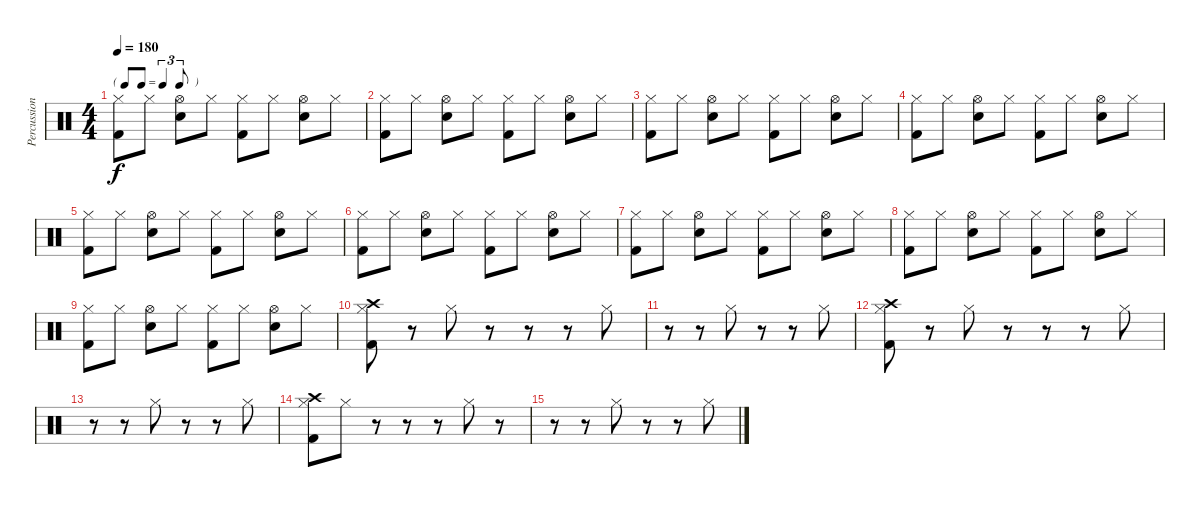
\track ("Percussions" "Percussion") {instrument percussion}
\staff {score}
\articulation defaults
\ts (4 4)
\tf triplet8th
\tempo 180
\clef neutral
\ks c
("Hi-Hat (closed)" "Kick (hit) 2").8{dy f} "Hi-Hat (closed)".8 ("Hi-Hat (open)" "Snare (hit) 2").8 "Hi-Hat (closed)".8 ("Hi-Hat (closed)" "Kick (hit) 2").8 "Hi-Hat (closed)".8 ("Hi-Hat (open)" "Snare (hit) 2").8 "Hi-Hat (closed)".8 |
("Hi-Hat (closed)" "Kick (hit) 2").8 "Hi-Hat (closed)".8 ("Hi-Hat (open)" "Snare (hit) 2").8 "Hi-Hat (closed)".8 ("Hi-Hat (closed)" "Kick (hit) 2").8 "Hi-Hat (closed)".8 ("Hi-Hat (open)" "Snare (hit) 2").8 "Hi-Hat (closed)".8 |
("Hi-Hat (closed)" "Kick (hit) 2").8 "Hi-Hat (closed)".8 ("Hi-Hat (open)" "Snare (hit) 2").8 "Hi-Hat (closed)".8 ("Hi-Hat (closed)" "Kick (hit) 2").8 "Hi-Hat (closed)".8 ("Hi-Hat (open)" "Snare (hit) 2").8 "Hi-Hat (closed)".8 |
("Hi-Hat (closed)" "Kick (hit) 2").8 "Hi-Hat (closed)".8 ("Hi-Hat (open)" "Snare (hit) 2").8 "Hi-Hat (closed)".8 ("Hi-Hat (closed)" "Kick (hit) 2").8 "Hi-Hat (closed)".8 ("Hi-Hat (open)" "Snare (hit) 2").8 "Hi-Hat (closed)".8 |
("Hi-Hat (closed)" "Kick (hit) 2").8 "Hi-Hat (closed)".8 ("Hi-Hat (open)" "Snare (hit) 2").8 "Hi-Hat (closed)".8 ("Hi-Hat (closed)" "Kick (hit) 2").8 "Hi-Hat (closed)".8 ("Hi-Hat (open)" "Snare (hit) 2").8 "Hi-Hat (closed)".8 |
("Hi-Hat (closed)" "Kick (hit) 2").8 "Hi-Hat (closed)".8 ("Hi-Hat (open)" "Snare (hit) 2").8 "Hi-Hat (closed)".8 ("Hi-Hat (closed)" "Kick (hit) 2").8 "Hi-Hat (closed)".8 ("Hi-Hat (open)" "Snare (hit) 2").8 "Hi-Hat (closed)".8 |
("Hi-Hat (closed)" "Kick (hit) 2").8 "Hi-Hat (closed)".8 ("Hi-Hat (open)" "Snare (hit) 2").8 "Hi-Hat (closed)".8 ("Hi-Hat (closed)" "Kick (hit) 2").8 "Hi-Hat (closed)".8 ("Hi-Hat (open)" "Snare (hit) 2").8 "Hi-Hat (closed)".8 |
("Hi-Hat (closed)" "Kick (hit) 2").8 "Hi-Hat (closed)".8 ("Hi-Hat (open)" "Snare (hit) 2").8 "Hi-Hat (closed)".8 ("Hi-Hat (closed)" "Kick (hit) 2").8 "Hi-Hat (closed)".8 ("Hi-Hat (open)" "Snare (hit) 2").8 "Hi-Hat (closed)".8 |
("Hi-Hat (closed)" "Kick (hit) 2").8 "Hi-Hat (closed)".8 ("Hi-Hat (open)" "Snare (hit) 2").8 "Hi-Hat (closed)".8 ("Hi-Hat (closed)" "Kick (hit) 2").8 "Hi-Hat (closed)".8 ("Hi-Hat (open)" "Snare (hit) 2").8 "Hi-Hat (closed)".8 |
("Crash high (hit)" "Kick (hit) 2" "Hi-Hat (closed)").8 r.8 "Hi-Hat (closed)".8 r.8 r.8 r.8 "Hi-Hat (closed)".8 |
r.8 r.8 "Hi-Hat (closed)".8 r.8 r.8 "Hi-Hat (closed)".8 |
("Crash high (hit)" "Kick (hit) 2" "Hi-Hat (closed)").8 r.8 "Hi-Hat (closed)".8 r.8 r.8 r.8 "Hi-Hat (closed)".8 |
r.8 r.8 "Hi-Hat (closed)".8 r.8 r.8 "Hi-Hat (closed)".8 |
("Crash high (hit)" "Kick (hit) 2" "Hi-Hat (closed)").8 "Hi-Hat (closed)".8 r.8 r.8 r.8 "Hi-Hat (closed)".8 r.8 |
r.8 r.8 "Hi-Hat (closed)".8 r.8 r.8 "Hi-Hat (closed)".8
